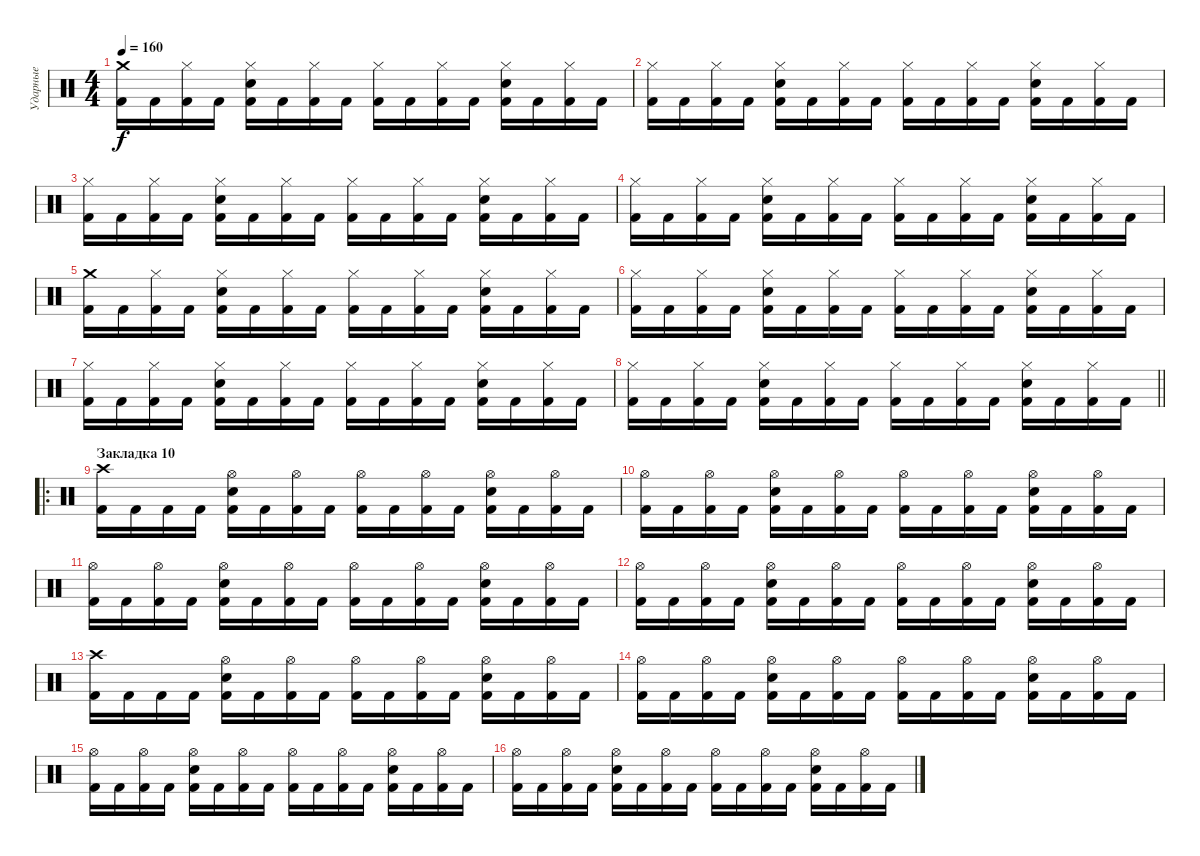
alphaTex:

\track ("Ударные" "Ударные") {instrument percussion}
\staff {score}
\articulation defaults
\ts (4 4)
\tempo 160
\clef neutral
\ks c
("Crash medium (hit)" "Kick (hit) 2").16{dy f} "Kick (hit) 2".16 ("Hi-Hat (closed)" "Kick (hit) 2").16 "Kick (hit) 2".16 ("Electric Snare (hit)" "Hi-Hat (closed)" "Kick (hit) 2").16 "Kick (hit) 2".16 ("Hi-Hat (closed)" "Kick (hit) 2").16 "Kick (hit) 2".16 ("Hi-Hat (closed)" "Kick (hit) 2").16 "Kick (hit) 2".16 ("Hi-Hat (closed)" "Kick (hit) 2").16 "Kick (hit) 2".16 ("Electric Snare (hit)" "Hi-Hat (closed)" "Kick (hit) 2").16 "Kick (hit) 2".16 ("Hi-Hat (closed)" "Kick (hit) 2").16 "Kick (hit) 2".16 |
("Hi-Hat (closed)" "Kick (hit) 2").16 "Kick (hit) 2".16 ("Hi-Hat (closed)" "Kick (hit) 2").16 "Kick (hit) 2".16 ("Electric Snare (hit)" "Hi-Hat (closed)" "Kick (hit) 2").16 "Kick (hit) 2".16 ("Hi-Hat (closed)" "Kick (hit) 2").16 "Kick (hit) 2".16 ("Hi-Hat (closed)" "Kick (hit) 2").16 "Kick (hit) 2".16 ("Hi-Hat (closed)" "Kick (hit) 2").16 "Kick (hit) 2".16 ("Electric Snare (hit)" "Hi-Hat (closed)" "Kick (hit) 2").16 "Kick (hit) 2".16 ("Hi-Hat (closed)" "Kick (hit) 2").16 "Kick (hit) 2".16 |
("Hi-Hat (closed)" "Kick (hit) 2").16 "Kick (hit) 2".16 ("Hi-Hat (closed)" "Kick (hit) 2").16 "Kick (hit) 2".16 ("Electric Snare (hit)" "Hi-Hat (closed)" "Kick (hit) 2").16 "Kick (hit) 2".16 ("Hi-Hat (closed)" "Kick (hit) 2").16 "Kick (hit) 2".16 ("Hi-Hat (closed)" "Kick (hit) 2").16 "Kick (hit) 2".16 ("Hi-Hat (closed)" "Kick (hit) 2").16 "Kick (hit) 2".16 ("Electric Snare (hit)" "Hi-Hat (closed)" "Kick (hit) 2").16 "Kick (hit) 2".16 ("Hi-Hat (closed)" "Kick (hit) 2").16 "Kick (hit) 2".16 |
("Hi-Hat (closed)" "Kick (hit) 2").16 "Kick (hit) 2".16 ("Hi-Hat (closed)" "Kick (hit) 2").16 "Kick (hit) 2".16 ("Electric Snare (hit)" "Hi-Hat (closed)" "Kick (hit) 2").16 "Kick (hit) 2".16 ("Hi-Hat (closed)" "Kick (hit) 2").16 "Kick (hit) 2".16 ("Hi-Hat (closed)" "Kick (hit) 2").16 "Kick (hit) 2".16 ("Hi-Hat (closed)" "Kick (hit) 2").16 "Kick (hit) 2".16 ("Electric Snare (hit)" "Hi-Hat (closed)" "Kick (hit) 2").16 "Kick (hit) 2".16 ("Hi-Hat (closed)" "Kick (hit) 2").16 "Kick (hit) 2".16 |
("Crash medium (hit)" "Kick (hit) 2").16 "Kick (hit) 2".16 ("Hi-Hat (closed)" "Kick (hit) 2").16 "Kick (hit) 2".16 ("Electric Snare (hit)" "Hi-Hat (closed)" "Kick (hit) 2").16 "Kick (hit) 2".16 ("Hi-Hat (closed)" "Kick (hit) 2").16 "Kick (hit) 2".16 ("Hi-Hat (closed)" "Kick (hit) 2").16 "Kick (hit) 2".16 ("Hi-Hat (closed)" "Kick (hit) 2").16 "Kick (hit) 2".16 ("Electric Snare (hit)" "Hi-Hat (closed)" "Kick (hit) 2").16 "Kick (hit) 2".16 ("Hi-Hat (closed)" "Kick (hit) 2").16 "Kick (hit) 2".16 |
("Hi-Hat (closed)" "Kick (hit) 2").16 "Kick (hit) 2".16 ("Hi-Hat (closed)" "Kick (hit) 2").16 "Kick (hit) 2".16 ("Electric Snare (hit)" "Hi-Hat (closed)" "Kick (hit) 2").16 "Kick (hit) 2".16 ("Hi-Hat (closed)" "Kick (hit) 2").16 "Kick (hit) 2".16 ("Hi-Hat (closed)" "Kick (hit) 2").16 "Kick (hit) 2".16 ("Hi-Hat (closed)" "Kick (hit) 2").16 "Kick (hit) 2".16 ("Electric Snare (hit)" "Hi-Hat (closed)" "Kick (hit) 2").16 "Kick (hit) 2".16 ("Hi-Hat (closed)" "Kick (hit) 2").16 "Kick (hit) 2".16 |
("Hi-Hat (closed)" "Kick (hit) 2").16 "Kick (hit) 2".16 ("Hi-Hat (closed)" "Kick (hit) 2").16 "Kick (hit) 2".16 ("Electric Snare (hit)" "Hi-Hat (closed)" "Kick (hit) 2").16 "Kick (hit) 2".16 ("Hi-Hat (closed)" "Kick (hit) 2").16 "Kick (hit) 2".16 ("Hi-Hat (closed)" "Kick (hit) 2").16 "Kick (hit) 2".16 ("Hi-Hat (closed)" "Kick (hit) 2").16 "Kick (hit) 2".16 ("Electric Snare (hit)" "Hi-Hat (closed)" "Kick (hit) 2").16 "Kick (hit) 2".16 ("Hi-Hat (closed)" "Kick (hit) 2").16 "Kick (hit) 2".16 |
\barLineRight lightlight
("Hi-Hat (closed)" "Kick (hit) 2").16 "Kick (hit) 2".16 ("Hi-Hat (closed)" "Kick (hit) 2").16 "Kick (hit) 2".16 ("Electric Snare (hit)" "Hi-Hat (closed)" "Kick (hit) 2").16 "Kick (hit) 2".16 ("Hi-Hat (closed)" "Kick (hit) 2").16 "Kick (hit) 2".16 ("Hi-Hat (closed)" "Kick (hit) 2").16 "Kick (hit) 2".16 ("Hi-Hat (closed)" "Kick (hit) 2").16 "Kick (hit) 2".16 ("Electric Snare (hit)" "Hi-Hat (closed)" "Kick (hit) 2").16 "Kick (hit) 2".16 ("Hi-Hat (closed)" "Kick (hit) 2").16 "Kick (hit) 2".16 |
\ro
\section ("" "Закладка 10")
("Crash high (hit)" "Kick (hit) 2").16 "Kick (hit) 2".16 "Kick (hit) 2".16 "Kick (hit) 2".16 ("Electric Snare (hit)" "Hi-Hat (open)" "Kick (hit) 2").16 "Kick (hit) 2".16 ("Hi-Hat (open)" "Kick (hit) 2").16 "Kick (hit) 2".16 ("Hi-Hat (open)" "Kick (hit) 2").16 "Kick (hit) 2".16 ("Hi-Hat (open)" "Kick (hit) 2").16 "Kick (hit) 2".16 ("Electric Snare (hit)" "Hi-Hat (open)" "Kick (hit) 2").16 "Kick (hit) 2".16 ("Hi-Hat (open)" "Kick (hit) 2").16 "Kick (hit) 2".16 |
("Hi-Hat (open)" "Kick (hit) 2").16 "Kick (hit) 2".16 ("Hi-Hat (open)" "Kick (hit) 2").16 "Kick (hit) 2".16 ("Electric Snare (hit)" "Hi-Hat (open)" "Kick (hit) 2").16 "Kick (hit) 2".16 ("Hi-Hat (open)" "Kick (hit) 2").16 "Kick (hit) 2".16 ("Hi-Hat (open)" "Kick (hit) 2").16 "Kick (hit) 2".16 ("Hi-Hat (open)" "Kick (hit) 2").16 "Kick (hit) 2".16 ("Electric Snare (hit)" "Hi-Hat (open)" "Kick (hit) 2").16 "Kick (hit) 2".16 ("Hi-Hat (open)" "Kick (hit) 2").16 "Kick (hit) 2".16 |
("Hi-Hat (open)" "Kick (hit) 2").16 "Kick (hit) 2".16 ("Hi-Hat (open)" "Kick (hit) 2").16 "Kick (hit) 2".16 ("Electric Snare (hit)" "Hi-Hat (open)" "Kick (hit) 2").16 "Kick (hit) 2".16 ("Hi-Hat (open)" "Kick (hit) 2").16 "Kick (hit) 2".16 ("Hi-Hat (open)" "Kick (hit) 2").16 "Kick (hit) 2".16 ("Hi-Hat (open)" "Kick (hit) 2").16 "Kick (hit) 2".16 ("Electric Snare (hit)" "Hi-Hat (open)" "Kick (hit) 2").16 "Kick (hit) 2".16 ("Hi-Hat (open)" "Kick (hit) 2").16 "Kick (hit) 2".16 |
("Hi-Hat (open)" "Kick (hit) 2").16 "Kick (hit) 2".16 ("Hi-Hat (open)" "Kick (hit) 2").16 "Kick (hit) 2".16 ("Electric Snare (hit)" "Hi-Hat (open)" "Kick (hit) 2").16 "Kick (hit) 2".16 ("Hi-Hat (open)" "Kick (hit) 2").16 "Kick (hit) 2".16 ("Hi-Hat (open)" "Kick (hit) 2").16 "Kick (hit) 2".16 ("Hi-Hat (open)" "Kick (hit) 2").16 "Kick (hit) 2".16 ("Electric Snare (hit)" "Hi-Hat (open)" "Kick (hit) 2").16 "Kick (hit) 2".16 ("Hi-Hat (open)" "Kick (hit) 2").16 "Kick (hit) 2".16 |
("Crash high (hit)" "Kick (hit) 2").16 "Kick (hit) 2".16 "Kick (hit) 2".16 "Kick (hit) 2".16 ("Electric Snare (hit)" "Hi-Hat (open)" "Kick (hit) 2").16 "Kick (hit) 2".16 ("Hi-Hat (open)" "Kick (hit) 2").16 "Kick (hit) 2".16 ("Hi-Hat (open)" "Kick (hit) 2").16 "Kick (hit) 2".16 ("Hi-Hat (open)" "Kick (hit) 2").16 "Kick (hit) 2".16 ("Electric Snare (hit)" "Hi-Hat (open)" "Kick (hit) 2").16 "Kick (hit) 2".16 ("Hi-Hat (open)" "Kick (hit) 2").16 "Kick (hit) 2".16 |
("Hi-Hat (open)" "Kick (hit) 2").16 "Kick (hit) 2".16 ("Hi-Hat (open)" "Kick (hit) 2").16 "Kick (hit) 2".16 ("Electric Snare (hit)" "Hi-Hat (open)" "Kick (hit) 2").16 "Kick (hit) 2".16 ("Hi-Hat (open)" "Kick (hit) 2").16 "Kick (hit) 2".16 ("Hi-Hat (open)" "Kick (hit) 2").16 "Kick (hit) 2".16 ("Hi-Hat (open)" "Kick (hit) 2").16 "Kick (hit) 2".16 ("Electric Snare (hit)" "Hi-Hat (open)" "Kick (hit) 2").16 "Kick (hit) 2".16 ("Hi-Hat (open)" "Kick (hit) 2").16 "Kick (hit) 2".16 |
("Hi-Hat (open)" "Kick (hit) 2").16 "Kick (hit) 2".16 ("Hi-Hat (open)" "Kick (hit) 2").16 "Kick (hit) 2".16 ("Electric Snare (hit)" "Hi-Hat (open)" "Kick (hit) 2").16 "Kick (hit) 2".16 ("Hi-Hat (open)" "Kick (hit) 2").16 "Kick (hit) 2".16 ("Hi-Hat (open)" "Kick (hit) 2").16 "Kick (hit) 2".16 ("Hi-Hat (open)" "Kick (hit) 2").16 "Kick (hit) 2".16 ("Electric Snare (hit)" "Hi-Hat (open)" "Kick (hit) 2").16 "Kick (hit) 2".16 ("Hi-Hat (open)" "Kick (hit) 2").16 "Kick (hit) 2".16 |
("Hi-Hat (open)" "Kick (hit) 2").16 "Kick (hit) 2".16 ("Hi-Hat (open)" "Kick (hit) 2").16 "Kick (hit) 2".16 ("Electric Snare (hit)" "Hi-Hat (open)" "Kick (hit) 2").16 "Kick (hit) 2".16 ("Hi-Hat (open)" "Kick (hit) 2").16 "Kick (hit) 2".16 ("Hi-Hat (open)" "Kick (hit) 2").16 "Kick (hit) 2".16 ("Hi-Hat (open)" "Kick (hit) 2").16 "Kick (hit) 2".16 ("Electric Snare (hit)" "Hi-Hat (open)" "Kick (hit) 2").16 "Kick (hit) 2".16 ("Hi-Hat (open)" "Kick (hit) 2").16 "Kick (hit) 2".16
